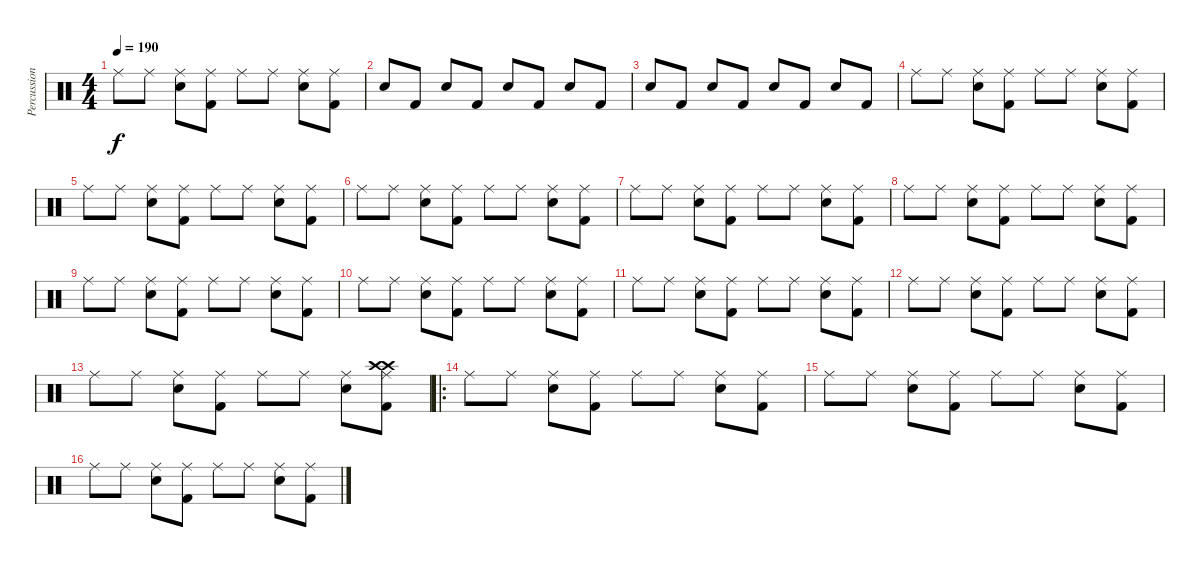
\track ("Percussion" "Percussion") {instrument percussion}
\staff {score}
\articulation defaults
\ts (4 4)
\tempo 190
\clef neutral
\ks c "Ride (middle)".8{dy f} "Ride (middle)".8
("Ride (middle)" "Snare (hit) 2").8 ("Ride (middle)" "Kick (hit) 2").8 "Ride (middle)".8 "Ride (middle)".8 ("Ride (middle)" "Snare (hit) 2").8 ("Ride (middle)" "Kick (hit) 2").8 |
"Snare (hit) 2".8 "Kick (hit) 2".8 "Snare (hit) 2".8 "Kick (hit) 2".8 "Snare (hit) 2".8 "Kick (hit) 2".8 "Snare (hit) 2".8 "Kick (hit) 2".8 |
"Snare (hit) 2".8 "Kick (hit) 2".8 "Snare (hit) 2".8 "Kick (hit) 2".8 "Snare (hit) 2".8 "Kick (hit) 2".8 "Snare (hit) 2".8 "Kick (hit) 2".8 |
"Ride (middle)".8 "Ride (middle)".8 ("Ride (middle)" "Snare (hit) 2").8 ("Ride (middle)" "Kick (hit) 2").8 "Ride (middle)".8 "Ride (middle)".8 ("Ride (middle)" "Snare (hit) 2").8 ("Ride (middle)" "Kick (hit) 2").8 |
"Ride (middle)".8 "Ride (middle)".8 ("Ride (middle)" "Snare (hit) 2").8 ("Ride (middle)" "Kick (hit) 2").8 "Ride (middle)".8 "Ride (middle)".8 ("Ride (middle)" "Snare (hit) 2").8 ("Ride (middle)" "Kick (hit) 2").8 |
"Ride (middle)".8 "Ride (middle)".8 ("Ride (middle)" "Snare (hit) 2").8 ("Ride (middle)" "Kick (hit) 2").8 "Ride (middle)".8 "Ride (middle)".8 ("Ride (middle)" "Snare (hit) 2").8 ("Ride (middle)" "Kick (hit) 2").8 |
"Ride (middle)".8 "Ride (middle)".8 ("Ride (middle)" "Snare (hit) 2").8 ("Ride (middle)" "Kick (hit) 2").8 "Ride (middle)".8 "Ride (middle)".8 ("Ride (middle)" "Snare (hit) 2").8 ("Ride (middle)" "Kick (hit) 2").8 |
"Ride (middle)".8 "Ride (middle)".8 ("Ride (middle)" "Snare (hit) 2").8 ("Ride (middle)" "Kick (hit) 2").8 "Ride (middle)".8 "Ride (middle)".8 ("Ride (middle)" "Snare (hit) 2").8 ("Ride (middle)" "Kick (hit) 2").8 |
"Ride (middle)".8 "Ride (middle)".8 ("Ride (middle)" "Snare (hit) 2").8 ("Ride (middle)" "Kick (hit) 2").8 "Ride (middle)".8 "Ride (middle)".8 ("Ride (middle)" "Snare (hit) 2").8 ("Ride (middle)" "Kick (hit) 2").8 |
"Ride (middle)".8 "Ride (middle)".8 ("Ride (middle)" "Snare (hit) 2").8 ("Ride (middle)" "Kick (hit) 2").8 "Ride (middle)".8 "Ride (middle)".8 ("Ride (middle)" "Snare (hit) 2").8 ("Ride (middle)" "Kick (hit) 2").8 |
"Ride (middle)".8 "Ride (middle)".8 ("Ride (middle)" "Snare (hit) 2").8 ("Ride (middle)" "Kick (hit) 2").8 "Ride (middle)".8 "Ride (middle)".8 ("Ride (middle)" "Snare (hit) 2").8 ("Ride (middle)" "Kick (hit) 2").8 |
"Ride (middle)".8 "Ride (middle)".8 ("Ride (middle)" "Snare (hit) 2").8 ("Ride (middle)" "Kick (hit) 2").8 "Ride (middle)".8 "Ride (middle)".8 ("Ride (middle)" "Snare (hit) 2").8 ("Ride (middle)" "Kick (hit) 2").8 |
"Ride (middle)".8 "Ride (middle)".8 ("Ride (middle)" "Snare (hit) 2").8 ("Ride (middle)" "Kick (hit) 2").8 "Ride (middle)".8 "Ride (middle)".8 ("Ride (middle)" "Snare (hit) 2").8 ("Ride (middle)" "Kick (hit) 2" "Crash high (hit)" "Crash high (hit)").8 |
\ro "Ride (middle)".8 "Ride (middle)".8
("Ride (middle)" "Snare (hit) 2").8 ("Ride (middle)" "Kick (hit) 2").8 "Ride (middle)".8 "Ride (middle)".8 ("Ride (middle)" "Snare (hit) 2").8 ("Ride (middle)" "Kick (hit) 2").8 |
"Ride (middle)".8 "Ride (middle)".8 ("Ride (middle)" "Snare (hit) 2").8 ("Ride (middle)" "Kick (hit) 2").8 "Ride (middle)".8 "Ride (middle)".8 ("Ride (middle)" "Snare (hit) 2").8 ("Ride (middle)" "Kick (hit) 2").8 |
"Ride (middle)".8 "Ride (middle)".8 ("Ride (middle)" "Snare (hit) 2").8 ("Ride (middle)" "Kick (hit) 2").8 "Ride (middle)".8 "Ride (middle)".8 ("Ride (middle)" "Snare (hit) 2").8 ("Ride (middle)" "Kick (hit) 2").8
